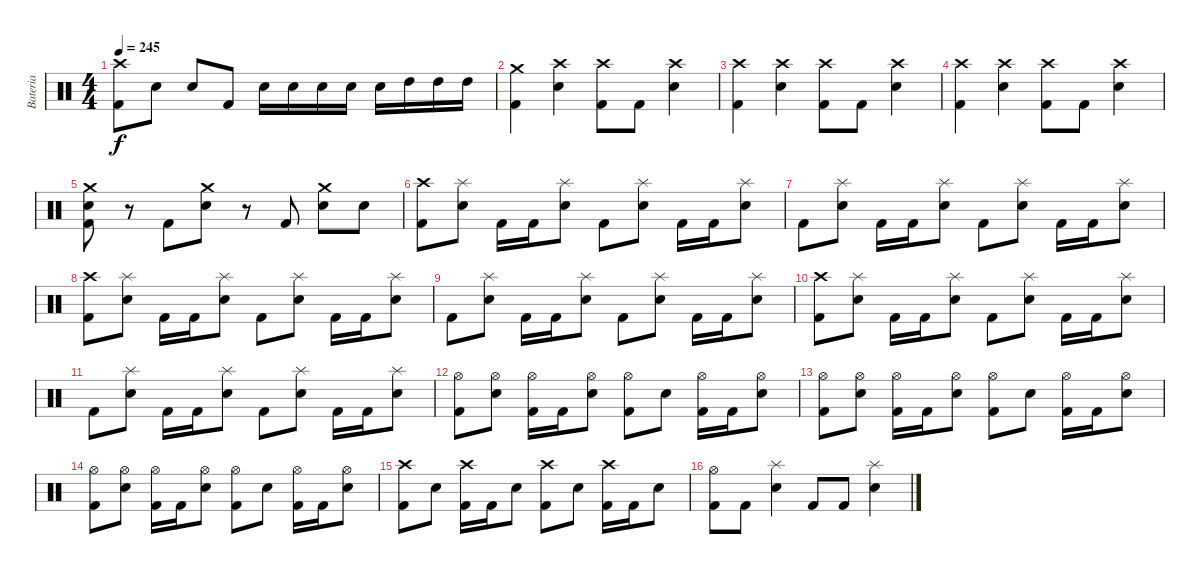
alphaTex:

\track ("Bateria" "Bateria") {instrument percussion}
\staff {score}
\articulation defaults
\ts (4 4)
\tempo 245
\clef neutral
\ks c
("Crash high (hit)" "Kick (hit) 2").8{dy f} "Electric Snare (hit)".8 "Electric Snare (hit)".8 "Kick (hit) 2".8 "Electric Snare (hit)".16 "Electric Snare (hit)".16 "Electric Snare (hit)".16 "Electric Snare (hit)".16 "Electric Snare (hit)".16 "High Tom (hit)".16 "High Tom (hit)".16 "High Tom (hit)".16 |
("Crash medium (hit)" "Kick (hit) 2").4 ("Crash high (hit)" "Electric Snare (hit)").4 ("Crash high (hit)" "Kick (hit) 2").8 "Kick (hit) 2".8 ("Crash high (hit)" "Electric Snare (hit)").4 |
("Crash high (hit)" "Kick (hit) 2").4 ("Crash high (hit)" "Electric Snare (hit)").4 ("Crash high (hit)" "Kick (hit) 2").8 "Kick (hit) 2".8 ("Crash high (hit)" "Electric Snare (hit)").4 |
("Crash high (hit)" "Kick (hit) 2").4 ("Crash high (hit)" "Electric Snare (hit)").4 ("Crash high (hit)" "Kick (hit) 2").8 "Kick (hit) 2".8 ("Crash high (hit)" "Electric Snare (hit)").4 |
("Crash medium (hit)" "Electric Snare (hit)" "Kick (hit) 2").8 r.8 "Kick (hit) 2".8 ("Crash medium (hit)" "Electric Snare (hit)").8 r.8 "Kick (hit) 2".8 ("Crash medium (hit)" "Electric Snare (hit)").8 "Electric Snare (hit)".8 |
("Crash high (hit)" "Kick (hit) 2").8 ("Splash (hit)" "Electric Snare (hit)").8 "Kick (hit) 2".16 "Kick (hit) 2".16 ("Splash (hit)" "Electric Snare (hit)").8 "Kick (hit) 2".8 ("Splash (hit)" "Electric Snare (hit)").8 "Kick (hit) 2".16 "Kick (hit) 2".16 ("Splash (hit)" "Electric Snare (hit)").8 |
"Kick (hit) 2".8 ("Splash (hit)" "Electric Snare (hit)").8 "Kick (hit) 2".16 "Kick (hit) 2".16 ("Splash (hit)" "Electric Snare (hit)").8 "Kick (hit) 2".8 ("Splash (hit)" "Electric Snare (hit)").8 "Kick (hit) 2".16 "Kick (hit) 2".16 ("Splash (hit)" "Electric Snare (hit)").8 |
("Crash high (hit)" "Kick (hit) 2").8 ("Splash (hit)" "Electric Snare (hit)").8 "Kick (hit) 2".16 "Kick (hit) 2".16 ("Splash (hit)" "Electric Snare (hit)").8 "Kick (hit) 2".8 ("Splash (hit)" "Electric Snare (hit)").8 "Kick (hit) 2".16 "Kick (hit) 2".16 ("Splash (hit)" "Electric Snare (hit)").8 |
"Kick (hit) 2".8 ("Splash (hit)" "Electric Snare (hit)").8 "Kick (hit) 2".16 "Kick (hit) 2".16 ("Splash (hit)" "Electric Snare (hit)").8 "Kick (hit) 2".8 ("Splash (hit)" "Electric Snare (hit)").8 "Kick (hit) 2".16 "Kick (hit) 2".16 ("Splash (hit)" "Electric Snare (hit)").8 |
("Crash high (hit)" "Kick (hit) 2").8 ("Splash (hit)" "Electric Snare (hit)").8 "Kick (hit) 2".16 "Kick (hit) 2".16 ("Splash (hit)" "Electric Snare (hit)").8 "Kick (hit) 2".8 ("Splash (hit)" "Electric Snare (hit)").8 "Kick (hit) 2".16 "Kick (hit) 2".16 ("Splash (hit)" "Electric Snare (hit)").8 |
"Kick (hit) 2".8 ("Splash (hit)" "Electric Snare (hit)").8 "Kick (hit) 2".16 "Kick (hit) 2".16 ("Splash (hit)" "Electric Snare (hit)").8 "Kick (hit) 2".8 ("Splash (hit)" "Electric Snare (hit)").8 "Kick (hit) 2".16 "Kick (hit) 2".16 ("Splash (hit)" "Electric Snare (hit)").8 |
("Hi-Hat (open)" "Kick (hit) 2").8 ("Hi-Hat (open)" "Electric Snare (hit)").8 ("Hi-Hat (open)" "Kick (hit) 2").16 "Kick (hit) 2".16 ("Hi-Hat (open)" "Electric Snare (hit)").8 ("Hi-Hat (open)" "Kick (hit) 2").8 "Electric Snare (hit)".8 ("Hi-Hat (open)" "Kick (hit) 2").16 "Kick (hit) 2".16 ("Hi-Hat (open)" "Electric Snare (hit)").8 |
("Hi-Hat (open)" "Kick (hit) 2").8 ("Hi-Hat (open)" "Electric Snare (hit)").8 ("Hi-Hat (open)" "Kick (hit) 2").16 "Kick (hit) 2".16 ("Hi-Hat (open)" "Electric Snare (hit)").8 ("Hi-Hat (open)" "Kick (hit) 2").8 "Electric Snare (hit)".8 ("Hi-Hat (open)" "Kick (hit) 2").16 "Kick (hit) 2".16 ("Hi-Hat (open)" "Electric Snare (hit)").8 |
("Hi-Hat (open)" "Kick (hit) 2").8 ("Hi-Hat (open)" "Electric Snare (hit)").8 ("Hi-Hat (open)" "Kick (hit) 2").16 "Kick (hit) 2".16 ("Hi-Hat (open)" "Electric Snare (hit)").8 ("Hi-Hat (open)" "Kick (hit) 2").8 "Electric Snare (hit)".8 ("Hi-Hat (open)" "Kick (hit) 2").16 "Kick (hit) 2".16 ("Hi-Hat (open)" "Electric Snare (hit)").8 |
("Crash high (hit)" "Kick (hit) 2").8 "Electric Snare (hit)".8 ("Crash high (hit)" "Kick (hit) 2").16 "Kick (hit) 2".16 "Electric Snare (hit)".8 ("Crash high (hit)" "Kick (hit) 2").8 "Electric Snare (hit)".8 ("Crash high (hit)" "Kick (hit) 2").16 "Kick (hit) 2".16 "Electric Snare (hit)".8 |
("Hi-Hat (open)" "Kick (hit) 2").8 "Kick (hit) 2".8 ("Splash (hit)" "Electric Snare (hit)").4 "Kick (hit) 2".8 "Kick (hit) 2".8 ("Splash (hit)" "Electric Snare (hit)").4
